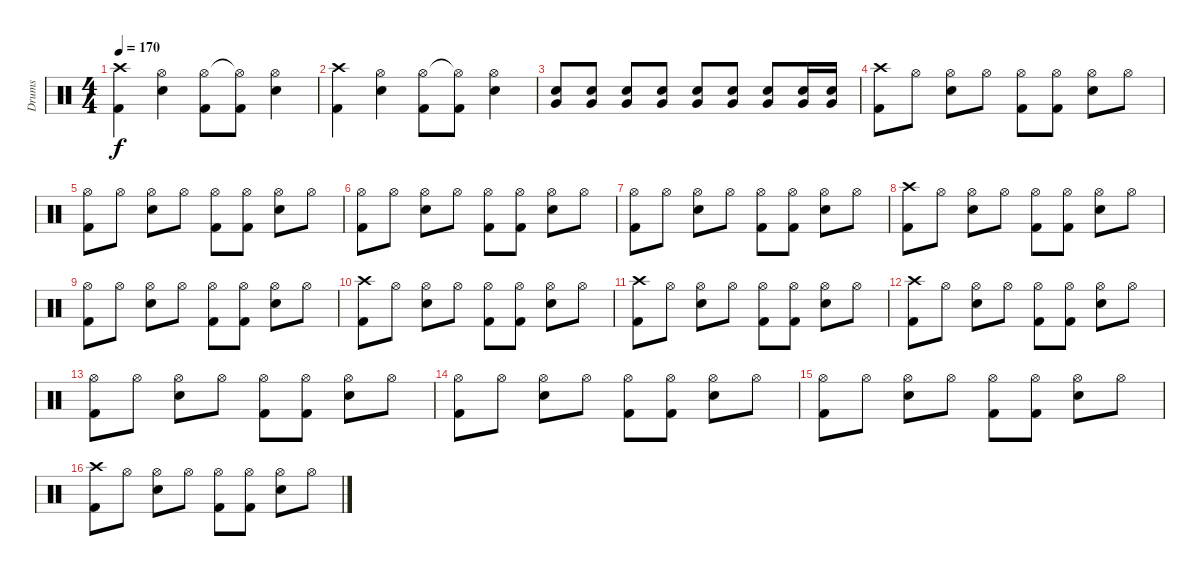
\track ("Drums" "Drums") {instrument percussion}
\staff {score}
\articulation defaults
\ts (4 4)
\tempo 170
\clef neutral
\ks c
("Crash high (hit)" "Kick (hit) 2").4{dy f} ("Hi-Hat (open)" "Snare (hit) 2").4 ("Hi-Hat (open)" "Kick (hit) 2").8 ("Hi-Hat (open)"{t} "Kick (hit) 2").8 ("Hi-Hat (open)" "Snare (hit) 2").4 |
("Crash high (hit)" "Kick (hit) 2").4 ("Hi-Hat (open)" "Snare (hit) 2").4 ("Hi-Hat (open)" "Kick (hit) 2").8 ("Hi-Hat (open)"{t} "Kick (hit) 2").8 ("Hi-Hat (open)" "Snare (hit) 2").4 |
("Snare (hit) 2" "Very Low Tom (hit)").8 ("Snare (hit) 2" "Very Low Tom (hit)").8 ("Snare (hit) 2" "Very Low Tom (hit)").8 ("Snare (hit) 2" "Very Low Tom (hit)").8 ("Snare (hit) 2" "Very Low Tom (hit)").8 ("Snare (hit) 2" "Very Low Tom (hit)").8 ("Snare (hit) 2" "Very Low Tom (hit)").8 ("Snare (hit) 2" "Very Low Tom (hit)").16 ("Snare (hit) 2" "Very Low Tom (hit)").16 |
("Crash high (hit)" "Kick (hit) 2").8 "Hi-Hat (open)".8 ("Hi-Hat (open)" "Snare (hit) 2").8 "Hi-Hat (open)".8 ("Hi-Hat (open)" "Kick (hit) 2").8 ("Hi-Hat (open)" "Kick (hit) 2").8 ("Hi-Hat (open)" "Snare (hit) 2").8 "Hi-Hat (open)".8 |
("Hi-Hat (open)" "Kick (hit) 2").8 "Hi-Hat (open)".8 ("Hi-Hat (open)" "Snare (hit) 2").8 "Hi-Hat (open)".8 ("Hi-Hat (open)" "Kick (hit) 2").8 ("Hi-Hat (open)" "Kick (hit) 2").8 ("Hi-Hat (open)" "Snare (hit) 2").8 "Hi-Hat (open)".8 |
("Hi-Hat (open)" "Kick (hit) 2").8 "Hi-Hat (open)".8 ("Hi-Hat (open)" "Snare (hit) 2").8 "Hi-Hat (open)".8 ("Hi-Hat (open)" "Kick (hit) 2").8 ("Hi-Hat (open)" "Kick (hit) 2").8 ("Hi-Hat (open)" "Snare (hit) 2").8 "Hi-Hat (open)".8 |
("Hi-Hat (open)" "Kick (hit) 2").8 "Hi-Hat (open)".8 ("Hi-Hat (open)" "Snare (hit) 2").8 "Hi-Hat (open)".8 ("Hi-Hat (open)" "Kick (hit) 2").8 ("Hi-Hat (open)" "Kick (hit) 2").8 ("Hi-Hat (open)" "Snare (hit) 2").8 "Hi-Hat (open)".8 |
("Crash high (hit)" "Kick (hit) 2").8 "Hi-Hat (open)".8 ("Hi-Hat (open)" "Snare (hit) 2").8 "Hi-Hat (open)".8 ("Hi-Hat (open)" "Kick (hit) 2").8 ("Hi-Hat (open)" "Kick (hit) 2").8 ("Hi-Hat (open)" "Snare (hit) 2").8 "Hi-Hat (open)".8 |
("Hi-Hat (open)" "Kick (hit) 2").8 "Hi-Hat (open)".8 ("Hi-Hat (open)" "Snare (hit) 2").8 "Hi-Hat (open)".8 ("Hi-Hat (open)" "Kick (hit) 2").8 ("Hi-Hat (open)" "Kick (hit) 2").8 ("Hi-Hat (open)" "Snare (hit) 2").8 "Hi-Hat (open)".8 |
("Crash high (hit)" "Kick (hit) 2").8 "Hi-Hat (open)".8 ("Hi-Hat (open)" "Snare (hit) 2").8 "Hi-Hat (open)".8 ("Hi-Hat (open)" "Kick (hit) 2").8 ("Hi-Hat (open)" "Kick (hit) 2").8 ("Hi-Hat (open)" "Snare (hit) 2").8 "Hi-Hat (open)".8 |
("Crash high (hit)" "Kick (hit) 2").8 "Hi-Hat (open)".8 ("Hi-Hat (open)" "Snare (hit) 2").8 "Hi-Hat (open)".8 ("Hi-Hat (open)" "Kick (hit) 2").8 ("Hi-Hat (open)" "Kick (hit) 2").8 ("Hi-Hat (open)" "Snare (hit) 2").8 "Hi-Hat (open)".8 |
("Crash high (hit)" "Kick (hit) 2").8 "Hi-Hat (open)".8 ("Hi-Hat (open)" "Snare (hit) 2").8 "Hi-Hat (open)".8 ("Hi-Hat (open)" "Kick (hit) 2").8 ("Hi-Hat (open)" "Kick (hit) 2").8 ("Hi-Hat (open)" "Snare (hit) 2").8 "Hi-Hat (open)".8 |
("Hi-Hat (open)" "Kick (hit) 2").8 "Hi-Hat (open)".8 ("Hi-Hat (open)" "Snare (hit) 2").8 "Hi-Hat (open)".8 ("Hi-Hat (open)" "Kick (hit) 2").8 ("Hi-Hat (open)" "Kick (hit) 2").8 ("Hi-Hat (open)" "Snare (hit) 2").8 "Hi-Hat (open)".8 |
("Hi-Hat (open)" "Kick (hit) 2").8 "Hi-Hat (open)".8 ("Hi-Hat (open)" "Snare (hit) 2").8 "Hi-Hat (open)".8 ("Hi-Hat (open)" "Kick (hit) 2").8 ("Hi-Hat (open)" "Kick (hit) 2").8 ("Hi-Hat (open)" "Snare (hit) 2").8 "Hi-Hat (open)".8 |
("Hi-Hat (open)" "Kick (hit) 2").8 "Hi-Hat (open)".8 ("Hi-Hat (open)" "Snare (hit) 2").8 "Hi-Hat (open)".8 ("Hi-Hat (open)" "Kick (hit) 2").8 ("Hi-Hat (open)" "Kick (hit) 2").8 ("Hi-Hat (open)" "Snare (hit) 2").8 "Hi-Hat (open)".8 |
("Crash high (hit)" "Kick (hit) 2").8 "Hi-Hat (open)".8 ("Hi-Hat (open)" "Snare (hit) 2").8 "Hi-Hat (open)".8 ("Hi-Hat (open)" "Kick (hit) 2").8 ("Hi-Hat (open)" "Kick (hit) 2").8 ("Hi-Hat (open)" "Snare (hit) 2").8 "Hi-Hat (open)".8
